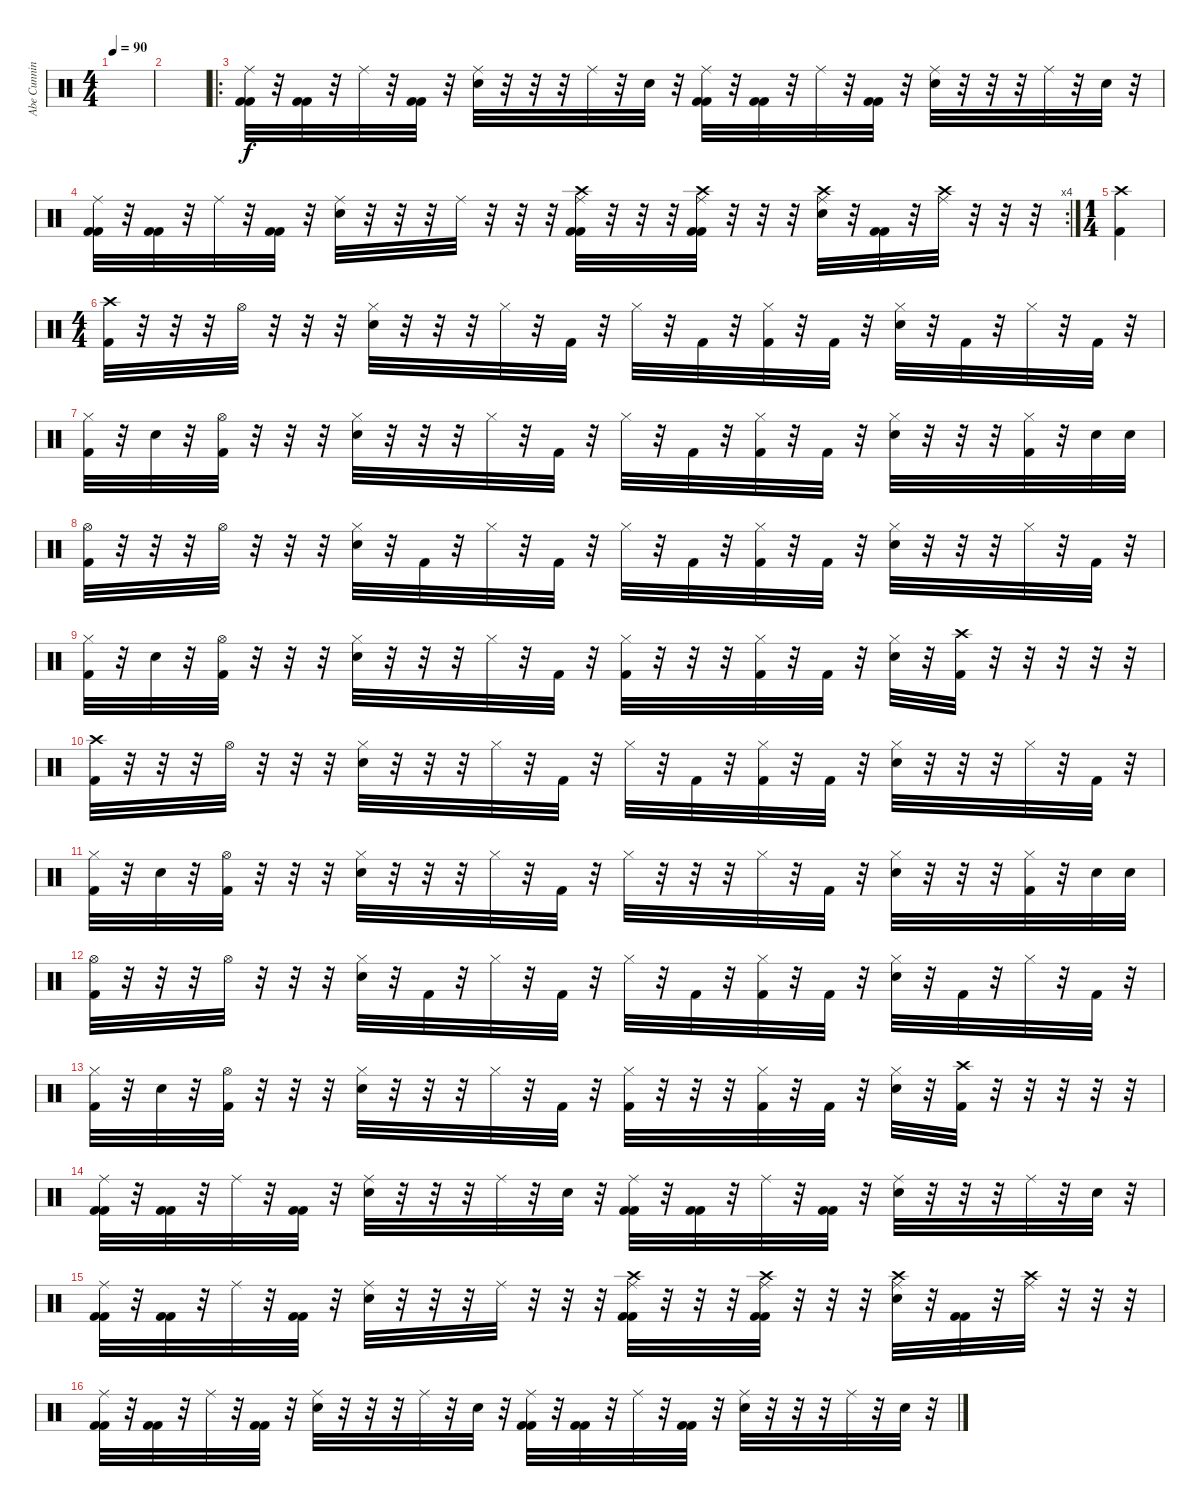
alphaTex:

\track ("Abe Cunningham - Drums" "Abe Cunnin") {instrument percussion}
\staff {score}
\articulation defaults
\ts (4 4)
\tempo 90
\clef neutral
\ks c
|
|
\ro
("Ride (middle)" "Kick (hit) 2" "Kick (hit) 2").32 r.32 ("Kick (hit) 2" "Kick (hit) 2").32 r.32 "Ride (middle)".32 r.32 ("Kick (hit) 2" "Kick (hit) 2").32 r.32 ("Ride (middle)" "Electric Snare (hit)").32 r.32 r.32 r.32 "Ride (middle)".32 r.32 "Electric Snare (hit)".32 r.32 ("Ride (middle)" "Kick (hit) 2" "Kick (hit) 2").32 r.32 ("Kick (hit) 2" "Kick (hit) 2").32 r.32 "Ride (middle)".32 r.32 ("Kick (hit) 2" "Kick (hit) 2").32 r.32 ("Ride (middle)" "Electric Snare (hit)").32 r.32 r.32 r.32 "Ride (middle)".32 r.32 "Electric Snare (hit)".32 r.32 |
\rc 4
("Ride (middle)" "Kick (hit) 2" "Kick (hit) 2").32 r.32 ("Kick (hit) 2" "Kick (hit) 2").32 r.32 "Ride (middle)".32 r.32 ("Kick (hit) 2" "Kick (hit) 2").32 r.32 ("Ride (middle)" "Electric Snare (hit)").32 r.32 r.32 r.32 "Ride (middle)".32 r.32 r.32 r.32 ("Crash high (hit)" "Ride (middle)" "Kick (hit) 2" "Kick (hit) 2").32 r.32 r.32 r.32 ("Crash high (hit)" "Ride (middle)" "Kick (hit) 2" "Kick (hit) 2").32 r.32 r.32 r.32 ("Crash high (hit)" "Ride (middle)" "Electric Snare (hit)").32 r.32 ("Kick (hit) 2" "Kick (hit) 2").32 r.32 ("Crash high (hit)" "Ride (middle)").32 r.32 r.32 r.32 |
\ts (1 4)
("Crash high (hit)" "Kick (hit) 2").4 |
\ts (4 4)
("Crash high (hit)" "Kick (hit) 2").32 r.32 r.32 r.32 "Hi-Hat (open)".32 r.32 r.32 r.32 ("Hi-Hat (closed)" "Electric Snare (hit)").32 r.32 r.32 r.32 "Hi-Hat (closed)".32 r.32 "Kick (hit) 2".32 r.32 "Hi-Hat (closed)".32 r.32 "Kick (hit) 2".32 r.32 ("Hi-Hat (closed)" "Kick (hit) 2").32 r.32 "Kick (hit) 2".32 r.32 ("Hi-Hat (closed)" "Electric Snare (hit)").32 r.32 "Kick (hit) 2".32 r.32 "Hi-Hat (closed)".32 r.32 "Kick (hit) 2".32 r.32 |
("Hi-Hat (closed)" "Kick (hit) 2").32 r.32 "Electric Snare (hit)".32 r.32 ("Hi-Hat (open)" "Kick (hit) 2").32 r.32 r.32 r.32 ("Hi-Hat (closed)" "Electric Snare (hit)").32 r.32 r.32 r.32 "Hi-Hat (closed)".32 r.32 "Kick (hit) 2".32 r.32 "Hi-Hat (closed)".32 r.32 "Kick (hit) 2".32 r.32 ("Hi-Hat (closed)" "Kick (hit) 2").32 r.32 "Kick (hit) 2".32 r.32 ("Hi-Hat (closed)" "Electric Snare (hit)").32 r.32 r.32 r.32 ("Hi-Hat (closed)" "Kick (hit) 2").32 r.32 "Electric Snare (hit)".32 "Electric Snare (hit)".32 |
("Hi-Hat (open)" "Kick (hit) 2").32 r.32 r.32 r.32 "Hi-Hat (open)".32 r.32 r.32 r.32 ("Hi-Hat (closed)" "Electric Snare (hit)").32 r.32 "Kick (hit) 2".32 r.32 "Hi-Hat (closed)".32 r.32 "Kick (hit) 2".32 r.32 "Hi-Hat (closed)".32 r.32 "Kick (hit) 2".32 r.32 ("Hi-Hat (closed)" "Kick (hit) 2").32 r.32 "Kick (hit) 2".32 r.32 ("Hi-Hat (closed)" "Electric Snare (hit)").32 r.32 r.32 r.32 "Hi-Hat (closed)".32 r.32 "Kick (hit) 2".32 r.32 |
("Hi-Hat (closed)" "Kick (hit) 2").32 r.32 "Electric Snare (hit)".32 r.32 ("Hi-Hat (open)" "Kick (hit) 2").32 r.32 r.32 r.32 ("Hi-Hat (closed)" "Electric Snare (hit)").32 r.32 r.32 r.32 "Hi-Hat (closed)".32 r.32 "Kick (hit) 2".32 r.32 ("Hi-Hat (closed)" "Kick (hit) 2").32 r.32 r.32 r.32 ("Hi-Hat (closed)" "Kick (hit) 2").32 r.32 "Kick (hit) 2".32 r.32 ("Hi-Hat (closed)" "Electric Snare (hit)").32 r.32 ("Crash high (hit)" "Kick (hit) 2").32 r.32 r.32 r.32 r.32 r.32 |
("Crash high (hit)" "Kick (hit) 2").32 r.32 r.32 r.32 "Hi-Hat (open)".32 r.32 r.32 r.32 ("Hi-Hat (closed)" "Electric Snare (hit)").32 r.32 r.32 r.32 "Hi-Hat (closed)".32 r.32 "Kick (hit) 2".32 r.32 "Hi-Hat (closed)".32 r.32 "Kick (hit) 2".32 r.32 ("Hi-Hat (closed)" "Kick (hit) 2").32 r.32 "Kick (hit) 2".32 r.32 ("Hi-Hat (closed)" "Electric Snare (hit)").32 r.32 r.32 r.32 "Hi-Hat (closed)".32 r.32 "Kick (hit) 2".32 r.32 |
("Hi-Hat (closed)" "Kick (hit) 2").32 r.32 "Electric Snare (hit)".32 r.32 ("Hi-Hat (open)" "Kick (hit) 2").32 r.32 r.32 r.32 ("Hi-Hat (closed)" "Electric Snare (hit)").32 r.32 r.32 r.32 "Hi-Hat (closed)".32 r.32 "Kick (hit) 2".32 r.32 "Hi-Hat (closed)".32 r.32 r.32 r.32 "Hi-Hat (closed)".32 r.32 "Kick (hit) 2".32 r.32 ("Hi-Hat (closed)" "Electric Snare (hit)").32 r.32 r.32 r.32 ("Hi-Hat (closed)" "Kick (hit) 2").32 r.32 "Electric Snare (hit)".32 "Electric Snare (hit)".32 |
("Hi-Hat (open)" "Kick (hit) 2").32 r.32 r.32 r.32 "Hi-Hat (open)".32 r.32 r.32 r.32 ("Hi-Hat (closed)" "Electric Snare (hit)").32 r.32 "Kick (hit) 2".32 r.32 "Hi-Hat (closed)".32 r.32 "Kick (hit) 2".32 r.32 "Hi-Hat (closed)".32 r.32 "Kick (hit) 2".32 r.32 ("Hi-Hat (closed)" "Kick (hit) 2").32 r.32 "Kick (hit) 2".32 r.32 ("Hi-Hat (closed)" "Electric Snare (hit)").32 r.32 "Kick (hit) 2".32 r.32 "Hi-Hat (closed)".32 r.32 "Kick (hit) 2".32 r.32 |
("Hi-Hat (closed)" "Kick (hit) 2").32 r.32 "Electric Snare (hit)".32 r.32 ("Hi-Hat (open)" "Kick (hit) 2").32 r.32 r.32 r.32 ("Hi-Hat (closed)" "Electric Snare (hit)").32 r.32 r.32 r.32 "Hi-Hat (closed)".32 r.32 "Kick (hit) 2".32 r.32 ("Hi-Hat (closed)" "Kick (hit) 2").32 r.32 r.32 r.32 ("Hi-Hat (closed)" "Kick (hit) 2").32 r.32 "Kick (hit) 2".32 r.32 ("Hi-Hat (closed)" "Electric Snare (hit)").32 r.32 ("Crash high (hit)" "Kick (hit) 2").32 r.32 r.32 r.32 r.32 r.32 |
("Ride (middle)" "Kick (hit) 2" "Kick (hit) 2").32 r.32 ("Kick (hit) 2" "Kick (hit) 2").32 r.32 "Ride (middle)".32 r.32 ("Kick (hit) 2" "Kick (hit) 2").32 r.32 ("Ride (middle)" "Electric Snare (hit)").32 r.32 r.32 r.32 "Ride (middle)".32 r.32 "Electric Snare (hit)".32 r.32 ("Ride (middle)" "Kick (hit) 2" "Kick (hit) 2").32 r.32 ("Kick (hit) 2" "Kick (hit) 2").32 r.32 "Ride (middle)".32 r.32 ("Kick (hit) 2" "Kick (hit) 2").32 r.32 ("Ride (middle)" "Electric Snare (hit)").32 r.32 r.32 r.32 "Ride (middle)".32 r.32 "Electric Snare (hit)".32 r.32 |
("Ride (middle)" "Kick (hit) 2" "Kick (hit) 2").32 r.32 ("Kick (hit) 2" "Kick (hit) 2").32 r.32 "Ride (middle)".32 r.32 ("Kick (hit) 2" "Kick (hit) 2").32 r.32 ("Ride (middle)" "Electric Snare (hit)").32 r.32 r.32 r.32 "Ride (middle)".32 r.32 r.32 r.32 ("Crash high (hit)" "Ride (middle)" "Kick (hit) 2" "Kick (hit) 2").32 r.32 r.32 r.32 ("Crash high (hit)" "Ride (middle)" "Kick (hit) 2" "Kick (hit) 2").32 r.32 r.32 r.32 ("Crash high (hit)" "Ride (middle)" "Electric Snare (hit)").32 r.32 ("Kick (hit) 2" "Kick (hit) 2").32 r.32 ("Crash high (hit)" "Ride (middle)").32 r.32 r.32 r.32 |
("Ride (middle)" "Kick (hit) 2" "Kick (hit) 2").32 r.32 ("Kick (hit) 2" "Kick (hit) 2").32 r.32 "Ride (middle)".32 r.32 ("Kick (hit) 2" "Kick (hit) 2").32 r.32 ("Ride (middle)" "Electric Snare (hit)").32 r.32 r.32 r.32 "Ride (middle)".32 r.32 "Electric Snare (hit)".32 r.32 ("Ride (middle)" "Kick (hit) 2" "Kick (hit) 2").32 r.32 ("Kick (hit) 2" "Kick (hit) 2").32 r.32 "Ride (middle)".32 r.32 ("Kick (hit) 2" "Kick (hit) 2").32 r.32 ("Ride (middle)" "Electric Snare (hit)").32 r.32 r.32 r.32 "Ride (middle)".32 r.32 "Electric Snare (hit)".32 r.32
